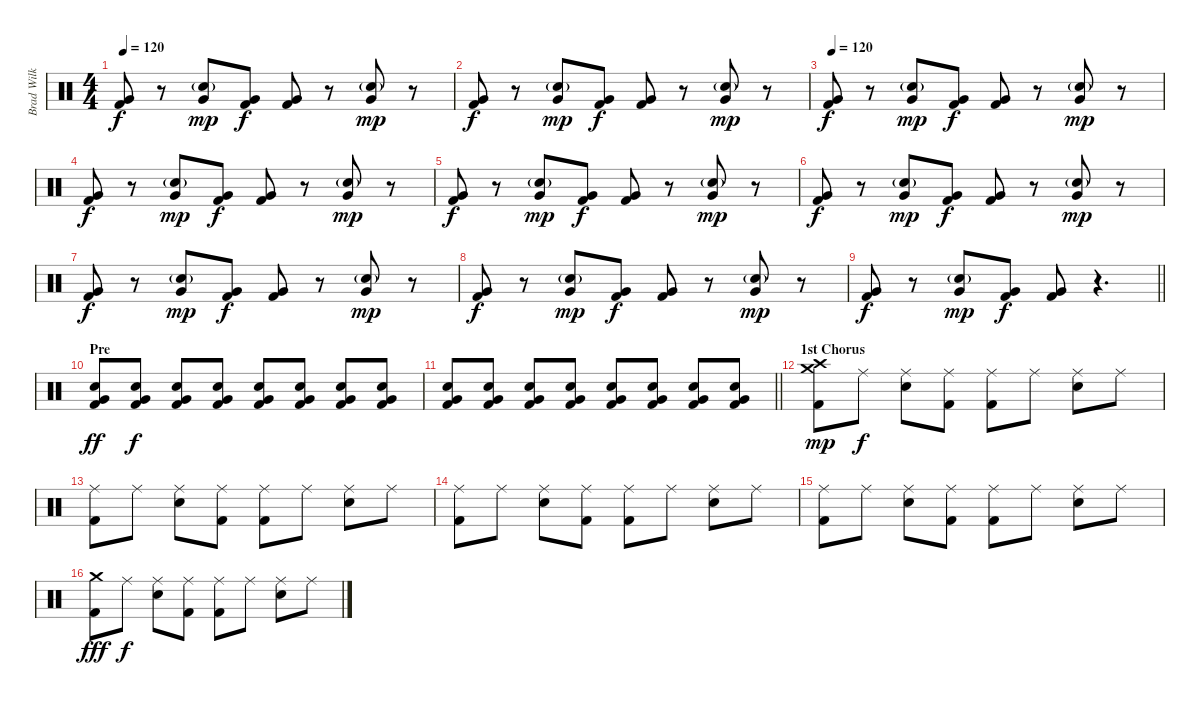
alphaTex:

\track ("Brad Wilk" "Brad Wilk") {instrument percussion}
\staff {score}
\articulation defaults
\ts (4 4)
\tempo 120
\clef neutral
\ks c
("Very Low Tom (hit)" "Kick (hit) 2").8{dy f} r.8 ("Snare (hit) 2"{g} "Very Low Tom (hit)").8{dy mp} ("Very Low Tom (hit)" "Kick (hit) 2").8{dy f} ("Very Low Tom (hit)" "Kick (hit) 2").8 r.8 ("Snare (hit) 2"{g} "Very Low Tom (hit)").8{dy mp} r.8 |
("Very Low Tom (hit)" "Kick (hit) 2").8{dy f} r.8 ("Snare (hit) 2"{g} "Very Low Tom (hit)").8{dy mp} ("Very Low Tom (hit)" "Kick (hit) 2").8{dy f} ("Very Low Tom (hit)" "Kick (hit) 2").8 r.8 ("Snare (hit) 2"{g} "Very Low Tom (hit)").8{dy mp} r.8 |
\tempo 120
("Very Low Tom (hit)" "Kick (hit) 2").8{dy f} r.8 ("Snare (hit) 2"{g} "Very Low Tom (hit)").8{dy mp} ("Very Low Tom (hit)" "Kick (hit) 2").8{dy f} ("Very Low Tom (hit)" "Kick (hit) 2").8 r.8 ("Snare (hit) 2"{g} "Very Low Tom (hit)").8{dy mp} r.8 |
("Very Low Tom (hit)" "Kick (hit) 2").8{dy f} r.8 ("Snare (hit) 2"{g} "Very Low Tom (hit)").8{dy mp} ("Very Low Tom (hit)" "Kick (hit) 2").8{dy f} ("Very Low Tom (hit)" "Kick (hit) 2").8 r.8 ("Snare (hit) 2"{g} "Very Low Tom (hit)").8{dy mp} r.8 |
("Very Low Tom (hit)" "Kick (hit) 2").8{dy f} r.8 ("Snare (hit) 2"{g} "Very Low Tom (hit)").8{dy mp} ("Very Low Tom (hit)" "Kick (hit) 2").8{dy f} ("Very Low Tom (hit)" "Kick (hit) 2").8 r.8 ("Snare (hit) 2"{g} "Very Low Tom (hit)").8{dy mp} r.8 |
("Very Low Tom (hit)" "Kick (hit) 2").8{dy f} r.8 ("Snare (hit) 2"{g} "Very Low Tom (hit)").8{dy mp} ("Very Low Tom (hit)" "Kick (hit) 2").8{dy f} ("Very Low Tom (hit)" "Kick (hit) 2").8 r.8 ("Snare (hit) 2"{g} "Very Low Tom (hit)").8{dy mp} r.8 |
("Very Low Tom (hit)" "Kick (hit) 2").8{dy f} r.8 ("Snare (hit) 2"{g} "Very Low Tom (hit)").8{dy mp} ("Very Low Tom (hit)" "Kick (hit) 2").8{dy f} ("Very Low Tom (hit)" "Kick (hit) 2").8 r.8 ("Snare (hit) 2"{g} "Very Low Tom (hit)").8{dy mp} r.8 |
("Very Low Tom (hit)" "Kick (hit) 2").8{dy f} r.8 ("Snare (hit) 2"{g} "Very Low Tom (hit)").8{dy mp} ("Very Low Tom (hit)" "Kick (hit) 2").8{dy f} ("Very Low Tom (hit)" "Kick (hit) 2").8 r.8 ("Snare (hit) 2"{g} "Very Low Tom (hit)").8{dy mp} r.8 |
\barLineRight lightlight
("Very Low Tom (hit)" "Kick (hit) 2").8{dy f} r.8 ("Snare (hit) 2"{g} "Very Low Tom (hit)").8{dy mp} ("Very Low Tom (hit)" "Kick (hit) 2").8{dy f} ("Very Low Tom (hit)" "Kick (hit) 2").8 r.4{d} |
\section ("" "Pre")
("Electric Snare (hit)" "Very Low Tom (hit)" "Kick (hit) 2").8{dy ff volume 2} ("Electric Snare (hit)" "Very Low Tom (hit)" "Kick (hit) 2").8{dy f volume 16} ("Electric Snare (hit)" "Very Low Tom (hit)" "Kick (hit) 2").8 ("Electric Snare (hit)" "Very Low Tom (hit)" "Kick (hit) 2").8 ("Electric Snare (hit)" "Very Low Tom (hit)" "Kick (hit) 2").8 ("Electric Snare (hit)" "Very Low Tom (hit)" "Kick (hit) 2").8 ("Electric Snare (hit)" "Very Low Tom (hit)" "Kick (hit) 2").8 ("Electric Snare (hit)" "Very Low Tom (hit)" "Kick (hit) 2").8 |
\barLineRight lightlight
("Electric Snare (hit)" "Very Low Tom (hit)" "Kick (hit) 2").8 ("Electric Snare (hit)" "Very Low Tom (hit)" "Kick (hit) 2").8 ("Electric Snare (hit)" "Very Low Tom (hit)" "Kick (hit) 2").8 ("Electric Snare (hit)" "Very Low Tom (hit)" "Kick (hit) 2").8 ("Electric Snare (hit)" "Very Low Tom (hit)" "Kick (hit) 2").8 ("Electric Snare (hit)" "Very Low Tom (hit)" "Kick (hit) 2").8 ("Electric Snare (hit)" "Very Low Tom (hit)" "Kick (hit) 2").8 ("Electric Snare (hit)" "Very Low Tom (hit)" "Kick (hit) 2").8 |
\section ("" "1st Chorus")
("Crash medium (hit)" "Crash high (hit)" "Kick (hit) 2").8{dy mp} "Ride (middle)".8{dy f} ("Ride (middle)" "Electric Snare (hit)").8 ("Ride (middle)" "Kick (hit) 2").8 ("Ride (middle)" "Kick (hit) 2").8 "Ride (middle)".8 ("Ride (middle)" "Electric Snare (hit)").8 "Ride (middle)".8 |
("Ride (middle)" "Kick (hit) 2").8 "Ride (middle)".8 ("Ride (middle)" "Electric Snare (hit)").8 ("Ride (middle)" "Kick (hit) 2").8 ("Ride (middle)" "Kick (hit) 2").8 "Ride (middle)".8 ("Ride (middle)" "Electric Snare (hit)").8 "Ride (middle)".8 |
("Ride (middle)" "Kick (hit) 2").8 "Ride (middle)".8 ("Ride (middle)" "Electric Snare (hit)").8 ("Ride (middle)" "Kick (hit) 2").8 ("Ride (middle)" "Kick (hit) 2").8 "Ride (middle)".8 ("Ride (middle)" "Electric Snare (hit)").8 "Ride (middle)".8 |
("Ride (middle)" "Kick (hit) 2").8 "Ride (middle)".8 ("Ride (middle)" "Electric Snare (hit)").8 ("Ride (middle)" "Kick (hit) 2").8 ("Ride (middle)" "Kick (hit) 2").8 "Ride (middle)".8 ("Ride (middle)" "Electric Snare (hit)").8 "Ride (middle)".8 |
("Crash medium (hit)" "Kick (hit) 2").8{dy fff} "Ride (middle)".8{dy f} ("Ride (middle)" "Electric Snare (hit)").8 ("Ride (middle)" "Kick (hit) 2").8 ("Ride (middle)" "Kick (hit) 2").8 "Ride (middle)".8 ("Ride (middle)" "Electric Snare (hit)").8 "Ride (middle)".8
